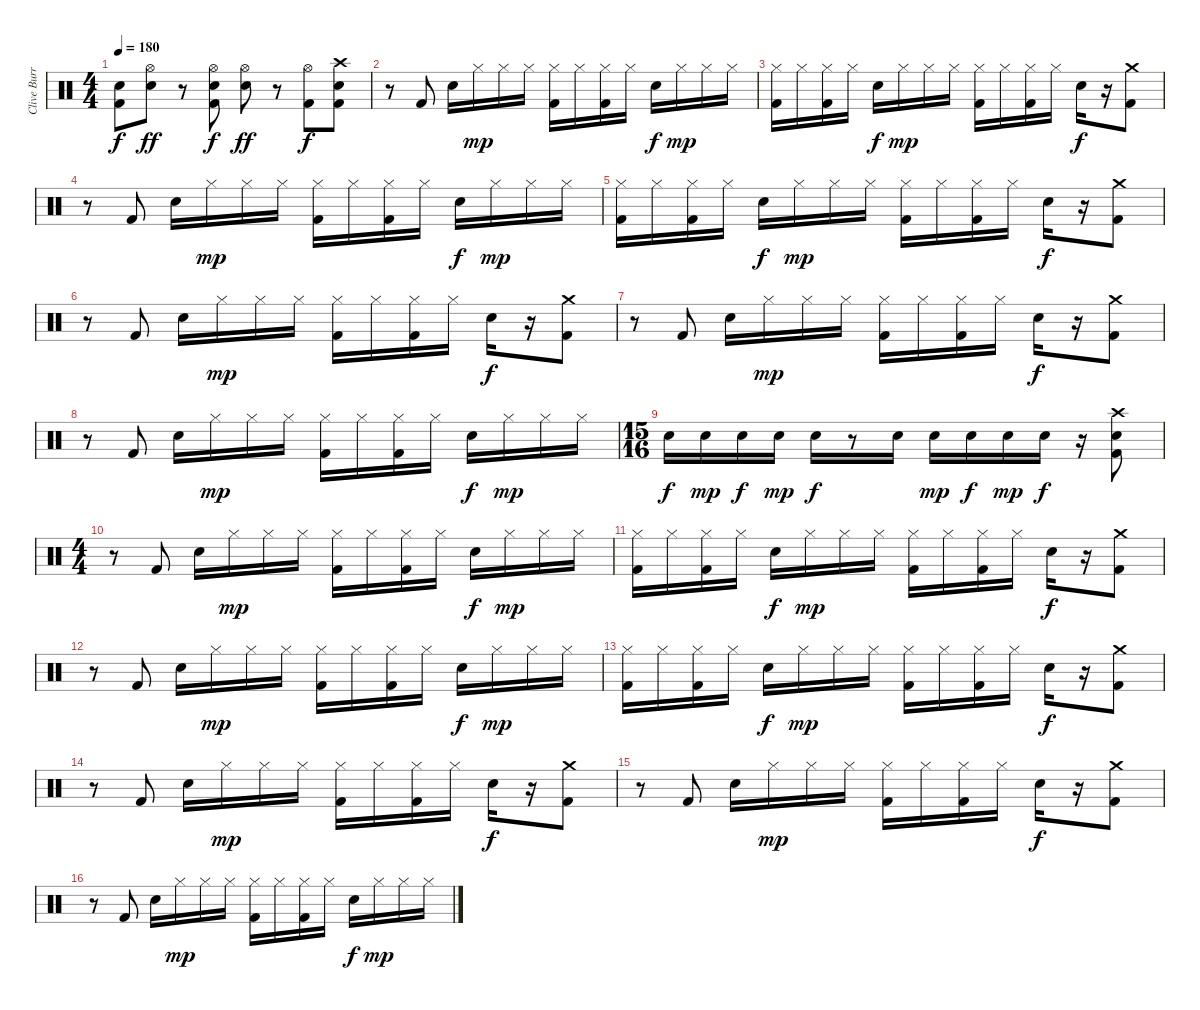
\track ("Clive Burr - Drums" "Clive Burr") {instrument percussion}
\staff {score}
\articulation defaults
\ts (4 4)
\tempo 180
\clef neutral
\ks c
("Snare (hit) 2" "Kick (hit) 2").8{dy f} ("Hi-Hat (open)" "Snare (hit) 2").8{dy ff} r.8 ("Hi-Hat (open)" "Snare (hit) 2" "Kick (hit) 2").8{dy f} ("Hi-Hat (open)" "Snare (hit) 2").8{dy ff} r.8 ("Hi-Hat (open)" "Kick (hit) 2").8{dy f} ("Crash high (hit)" "Snare (hit) 2" "Kick (hit) 2").8 |
r.8 "Kick (hit) 2".8 "Snare (hit) 2".16 "Hi-Hat (closed)".16{dy mp} "Hi-Hat (closed)".16 "Hi-Hat (closed)".16 ("Hi-Hat (closed)" "Kick (hit) 2").16 "Hi-Hat (closed)".16 ("Hi-Hat (closed)" "Kick (hit) 2").16 "Hi-Hat (closed)".16 "Snare (hit) 2".16{dy f} "Hi-Hat (closed)".16{dy mp} "Hi-Hat (closed)".16 "Hi-Hat (closed)".16 |
("Hi-Hat (closed)" "Kick (hit) 2").16 "Hi-Hat (closed)".16 ("Hi-Hat (closed)" "Kick (hit) 2").16 "Hi-Hat (closed)".16 "Snare (hit) 2".16{dy f} "Hi-Hat (closed)".16{dy mp} "Hi-Hat (closed)".16 "Hi-Hat (closed)".16 ("Hi-Hat (closed)" "Kick (hit) 2").16 "Hi-Hat (closed)".16 ("Hi-Hat (closed)" "Kick (hit) 2").16 "Hi-Hat (closed)".16 "Snare (hit) 2".16{dy f} r.16 ("Crash medium (hit)" "Kick (hit) 2").8 |
r.8 "Kick (hit) 2".8 "Snare (hit) 2".16 "Hi-Hat (closed)".16{dy mp} "Hi-Hat (closed)".16 "Hi-Hat (closed)".16 ("Hi-Hat (closed)" "Kick (hit) 2").16 "Hi-Hat (closed)".16 ("Hi-Hat (closed)" "Kick (hit) 2").16 "Hi-Hat (closed)".16 "Snare (hit) 2".16{dy f} "Hi-Hat (closed)".16{dy mp} "Hi-Hat (closed)".16 "Hi-Hat (closed)".16 |
("Hi-Hat (closed)" "Kick (hit) 2").16 "Hi-Hat (closed)".16 ("Hi-Hat (closed)" "Kick (hit) 2").16 "Hi-Hat (closed)".16 "Snare (hit) 2".16{dy f} "Hi-Hat (closed)".16{dy mp} "Hi-Hat (closed)".16 "Hi-Hat (closed)".16 ("Hi-Hat (closed)" "Kick (hit) 2").16 "Hi-Hat (closed)".16 ("Hi-Hat (closed)" "Kick (hit) 2").16 "Hi-Hat (closed)".16 "Snare (hit) 2".16{dy f} r.16 ("Crash medium (hit)" "Kick (hit) 2").8 |
r.8 "Kick (hit) 2".8 "Snare (hit) 2".16 "Hi-Hat (closed)".16{dy mp} "Hi-Hat (closed)".16 "Hi-Hat (closed)".16 ("Hi-Hat (closed)" "Kick (hit) 2").16 "Hi-Hat (closed)".16 ("Hi-Hat (closed)" "Kick (hit) 2").16 "Hi-Hat (closed)".16 "Snare (hit) 2".16{dy f} r.16 ("Crash medium (hit)" "Kick (hit) 2").8 |
r.8 "Kick (hit) 2".8 "Snare (hit) 2".16 "Hi-Hat (closed)".16{dy mp} "Hi-Hat (closed)".16 "Hi-Hat (closed)".16 ("Hi-Hat (closed)" "Kick (hit) 2").16 "Hi-Hat (closed)".16 ("Hi-Hat (closed)" "Kick (hit) 2").16 "Hi-Hat (closed)".16 "Snare (hit) 2".16{dy f} r.16 ("Crash medium (hit)" "Kick (hit) 2").8 |
r.8 "Kick (hit) 2".8 "Snare (hit) 2".16 "Hi-Hat (closed)".16{dy mp} "Hi-Hat (closed)".16 "Hi-Hat (closed)".16 ("Hi-Hat (closed)" "Kick (hit) 2").16 "Hi-Hat (closed)".16 ("Hi-Hat (closed)" "Kick (hit) 2").16 "Hi-Hat (closed)".16 "Snare (hit) 2".16{dy f} "Hi-Hat (closed)".16{dy mp} "Hi-Hat (closed)".16 "Hi-Hat (closed)".16 |
\ts (15 16)
"Snare (hit) 2".16{dy f} "Snare (hit) 2".16{dy mp} "Snare (hit) 2".16{dy f} "Snare (hit) 2".16{dy mp} "Snare (hit) 2".16{dy f} r.8 "Snare (hit) 2".16 "Snare (hit) 2".16{dy mp} "Snare (hit) 2".16{dy f} "Snare (hit) 2".16{dy mp} "Snare (hit) 2".16{dy f} r.16 ("Crash high (hit)" "Snare (hit) 2" "Kick (hit) 2").8 |
\ts (4 4)
r.8 "Kick (hit) 2".8 "Snare (hit) 2".16 "Hi-Hat (closed)".16{dy mp} "Hi-Hat (closed)".16 "Hi-Hat (closed)".16 ("Hi-Hat (closed)" "Kick (hit) 2").16 "Hi-Hat (closed)".16 ("Hi-Hat (closed)" "Kick (hit) 2").16 "Hi-Hat (closed)".16 "Snare (hit) 2".16{dy f} "Hi-Hat (closed)".16{dy mp} "Hi-Hat (closed)".16 "Hi-Hat (closed)".16 |
("Hi-Hat (closed)" "Kick (hit) 2").16 "Hi-Hat (closed)".16 ("Hi-Hat (closed)" "Kick (hit) 2").16 "Hi-Hat (closed)".16 "Snare (hit) 2".16{dy f} "Hi-Hat (closed)".16{dy mp} "Hi-Hat (closed)".16 "Hi-Hat (closed)".16 ("Hi-Hat (closed)" "Kick (hit) 2").16 "Hi-Hat (closed)".16 ("Hi-Hat (closed)" "Kick (hit) 2").16 "Hi-Hat (closed)".16 "Snare (hit) 2".16{dy f} r.16 ("Crash medium (hit)" "Kick (hit) 2").8 |
r.8 "Kick (hit) 2".8 "Snare (hit) 2".16 "Hi-Hat (closed)".16{dy mp} "Hi-Hat (closed)".16 "Hi-Hat (closed)".16 ("Hi-Hat (closed)" "Kick (hit) 2").16 "Hi-Hat (closed)".16 ("Hi-Hat (closed)" "Kick (hit) 2").16 "Hi-Hat (closed)".16 "Snare (hit) 2".16{dy f} "Hi-Hat (closed)".16{dy mp} "Hi-Hat (closed)".16 "Hi-Hat (closed)".16 |
("Hi-Hat (closed)" "Kick (hit) 2").16 "Hi-Hat (closed)".16 ("Hi-Hat (closed)" "Kick (hit) 2").16 "Hi-Hat (closed)".16 "Snare (hit) 2".16{dy f} "Hi-Hat (closed)".16{dy mp} "Hi-Hat (closed)".16 "Hi-Hat (closed)".16 ("Hi-Hat (closed)" "Kick (hit) 2").16 "Hi-Hat (closed)".16 ("Hi-Hat (closed)" "Kick (hit) 2").16 "Hi-Hat (closed)".16 "Snare (hit) 2".16{dy f} r.16 ("Crash medium (hit)" "Kick (hit) 2").8 |
r.8 "Kick (hit) 2".8 "Snare (hit) 2".16 "Hi-Hat (closed)".16{dy mp} "Hi-Hat (closed)".16 "Hi-Hat (closed)".16 ("Hi-Hat (closed)" "Kick (hit) 2").16 "Hi-Hat (closed)".16 ("Hi-Hat (closed)" "Kick (hit) 2").16 "Hi-Hat (closed)".16 "Snare (hit) 2".16{dy f} r.16 ("Crash medium (hit)" "Kick (hit) 2").8 |
r.8 "Kick (hit) 2".8 "Snare (hit) 2".16 "Hi-Hat (closed)".16{dy mp} "Hi-Hat (closed)".16 "Hi-Hat (closed)".16 ("Hi-Hat (closed)" "Kick (hit) 2").16 "Hi-Hat (closed)".16 ("Hi-Hat (closed)" "Kick (hit) 2").16 "Hi-Hat (closed)".16 "Snare (hit) 2".16{dy f} r.16 ("Crash medium (hit)" "Kick (hit) 2").8 |
r.8 "Kick (hit) 2".8 "Snare (hit) 2".16 "Hi-Hat (closed)".16{dy mp} "Hi-Hat (closed)".16 "Hi-Hat (closed)".16 ("Hi-Hat (closed)" "Kick (hit) 2").16 "Hi-Hat (closed)".16 ("Hi-Hat (closed)" "Kick (hit) 2").16 "Hi-Hat (closed)".16 "Snare (hit) 2".16{dy f} "Hi-Hat (closed)".16{dy mp} "Hi-Hat (closed)".16 "Hi-Hat (closed)".16
